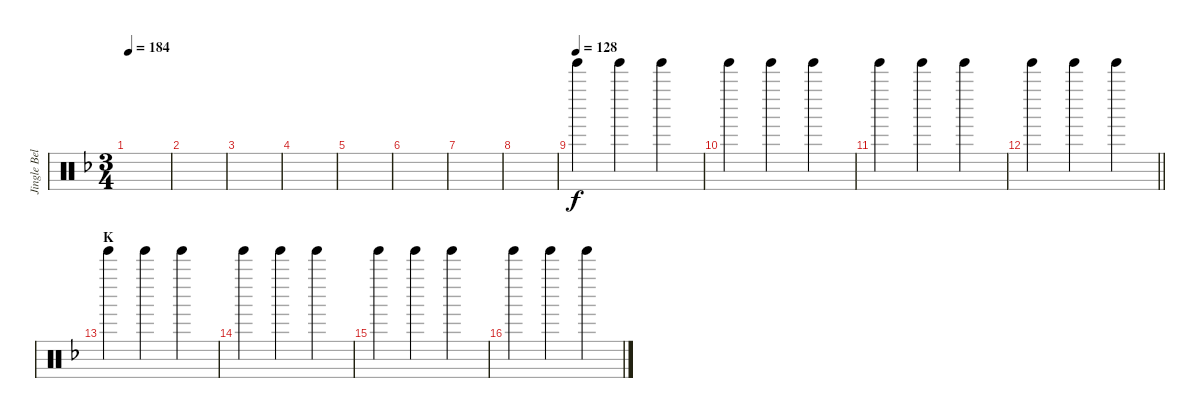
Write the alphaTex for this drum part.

\track ("Jingle Bells" "Jingle Bel") {instrument percussion}
\staff {score}
\articulation defaults
\ts (3 4)
\tempo 184
\clef neutral
\ks f
|
|
|
|
|
|
|
|
\tempo (128)
"Tinkle Bell (hit)".4{dy f} "Tinkle Bell (hit)".4 "Tinkle Bell (hit)".4 |
"Tinkle Bell (hit)".4 "Tinkle Bell (hit)".4 "Tinkle Bell (hit)".4 |
"Tinkle Bell (hit)".4 "Tinkle Bell (hit)".4 "Tinkle Bell (hit)".4 |
\barLineRight lightlight "Tinkle Bell (hit)".4 "Tinkle Bell (hit)".4 "Tinkle Bell (hit)".4
|
\section ("" "K")
"Tinkle Bell (hit)".4 "Tinkle Bell (hit)".4 "Tinkle Bell (hit)".4 |
"Tinkle Bell (hit)".4 "Tinkle Bell (hit)".4 "Tinkle Bell (hit)".4 |
"Tinkle Bell (hit)".4 "Tinkle Bell (hit)".4 "Tinkle Bell (hit)".4 |
"Tinkle Bell (hit)".4 "Tinkle Bell (hit)".4 "Tinkle Bell (hit)".4
